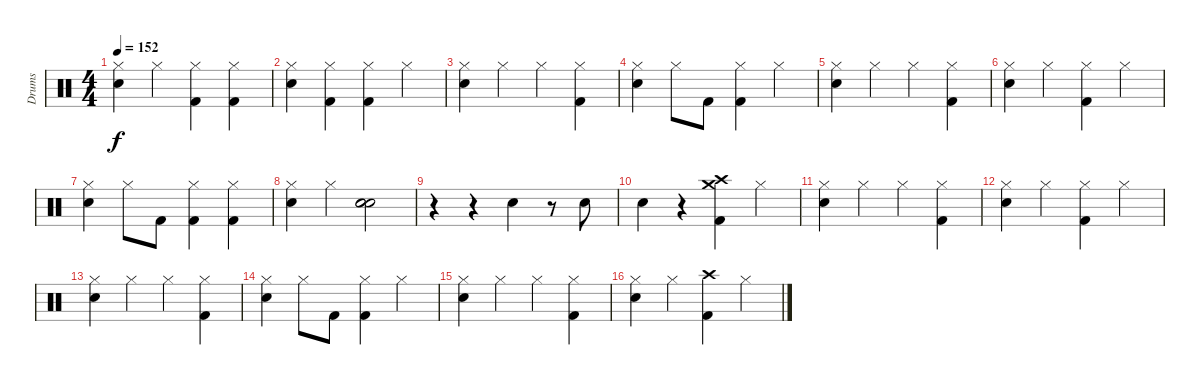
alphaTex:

\track ("Drums" "Drums") {instrument percussion}
\staff {score}
\articulation defaults
\ts (4 4)
\tempo 152
\clef neutral
\ks c
("Electric Snare (hit)" "Hi-Hat (closed)").4{dy f} "Hi-Hat (closed)".4 ("Kick (hit) 2" "Hi-Hat (closed)").4 ("Kick (hit) 2" "Hi-Hat (closed)").4 |
("Electric Snare (hit)" "Hi-Hat (closed)").4 ("Kick (hit) 2" "Hi-Hat (closed)").4 ("Kick (hit) 2" "Hi-Hat (closed)").4 "Hi-Hat (closed)".4 |
("Electric Snare (hit)" "Hi-Hat (closed)").4 "Hi-Hat (closed)".4 "Hi-Hat (closed)".4 ("Kick (hit) 2" "Hi-Hat (closed)").4 |
("Electric Snare (hit)" "Hi-Hat (closed)").4 "Hi-Hat (closed)".8 "Kick (hit) 2".8 ("Kick (hit) 2" "Hi-Hat (closed)").4 "Hi-Hat (closed)".4 |
("Electric Snare (hit)" "Hi-Hat (closed)").4 "Hi-Hat (closed)".4 "Hi-Hat (closed)".4 ("Kick (hit) 2" "Hi-Hat (closed)").4 |
("Electric Snare (hit)" "Hi-Hat (closed)").4 "Hi-Hat (closed)".4 ("Kick (hit) 2" "Hi-Hat (closed)").4 "Hi-Hat (closed)".4 |
("Electric Snare (hit)" "Hi-Hat (closed)").4 "Hi-Hat (closed)".8 "Kick (hit) 2".8 ("Kick (hit) 2" "Hi-Hat (closed)").4 ("Kick (hit) 2" "Hi-Hat (closed)").4 |
("Electric Snare (hit)" "Hi-Hat (closed)").4 "Hi-Hat (closed)".4 ("Electric Snare (hit)" "Electric Snare (hit)" "Electric Snare (hit)").2 |
r.4 r.4 "Electric Snare (hit)".4 r.8 "Electric Snare (hit)".8 |
"Electric Snare (hit)".4 r.4 ("Kick (hit) 2" "Crash high (hit)" "Crash medium (hit)").4 "Hi-Hat (closed)".4 |
("Electric Snare (hit)" "Hi-Hat (closed)").4 "Hi-Hat (closed)".4 "Hi-Hat (closed)".4 ("Kick (hit) 2" "Hi-Hat (closed)").4 |
("Electric Snare (hit)" "Hi-Hat (closed)").4 "Hi-Hat (closed)".4 ("Kick (hit) 2" "Hi-Hat (closed)").4 "Hi-Hat (closed)".4 |
("Electric Snare (hit)" "Hi-Hat (closed)").4 "Hi-Hat (closed)".4 "Hi-Hat (closed)".4 ("Kick (hit) 2" "Hi-Hat (closed)").4 |
("Electric Snare (hit)" "Hi-Hat (closed)").4 "Hi-Hat (closed)".8 "Kick (hit) 2".8 ("Kick (hit) 2" "Hi-Hat (closed)").4 "Hi-Hat (closed)".4 |
("Electric Snare (hit)" "Hi-Hat (closed)").4 "Hi-Hat (closed)".4 "Hi-Hat (closed)".4 ("Kick (hit) 2" "Hi-Hat (closed)").4 |
("Electric Snare (hit)" "Hi-Hat (closed)").4 "Hi-Hat (closed)".4 ("Kick (hit) 2" "Crash high (hit)").4 "Hi-Hat (closed)".4
